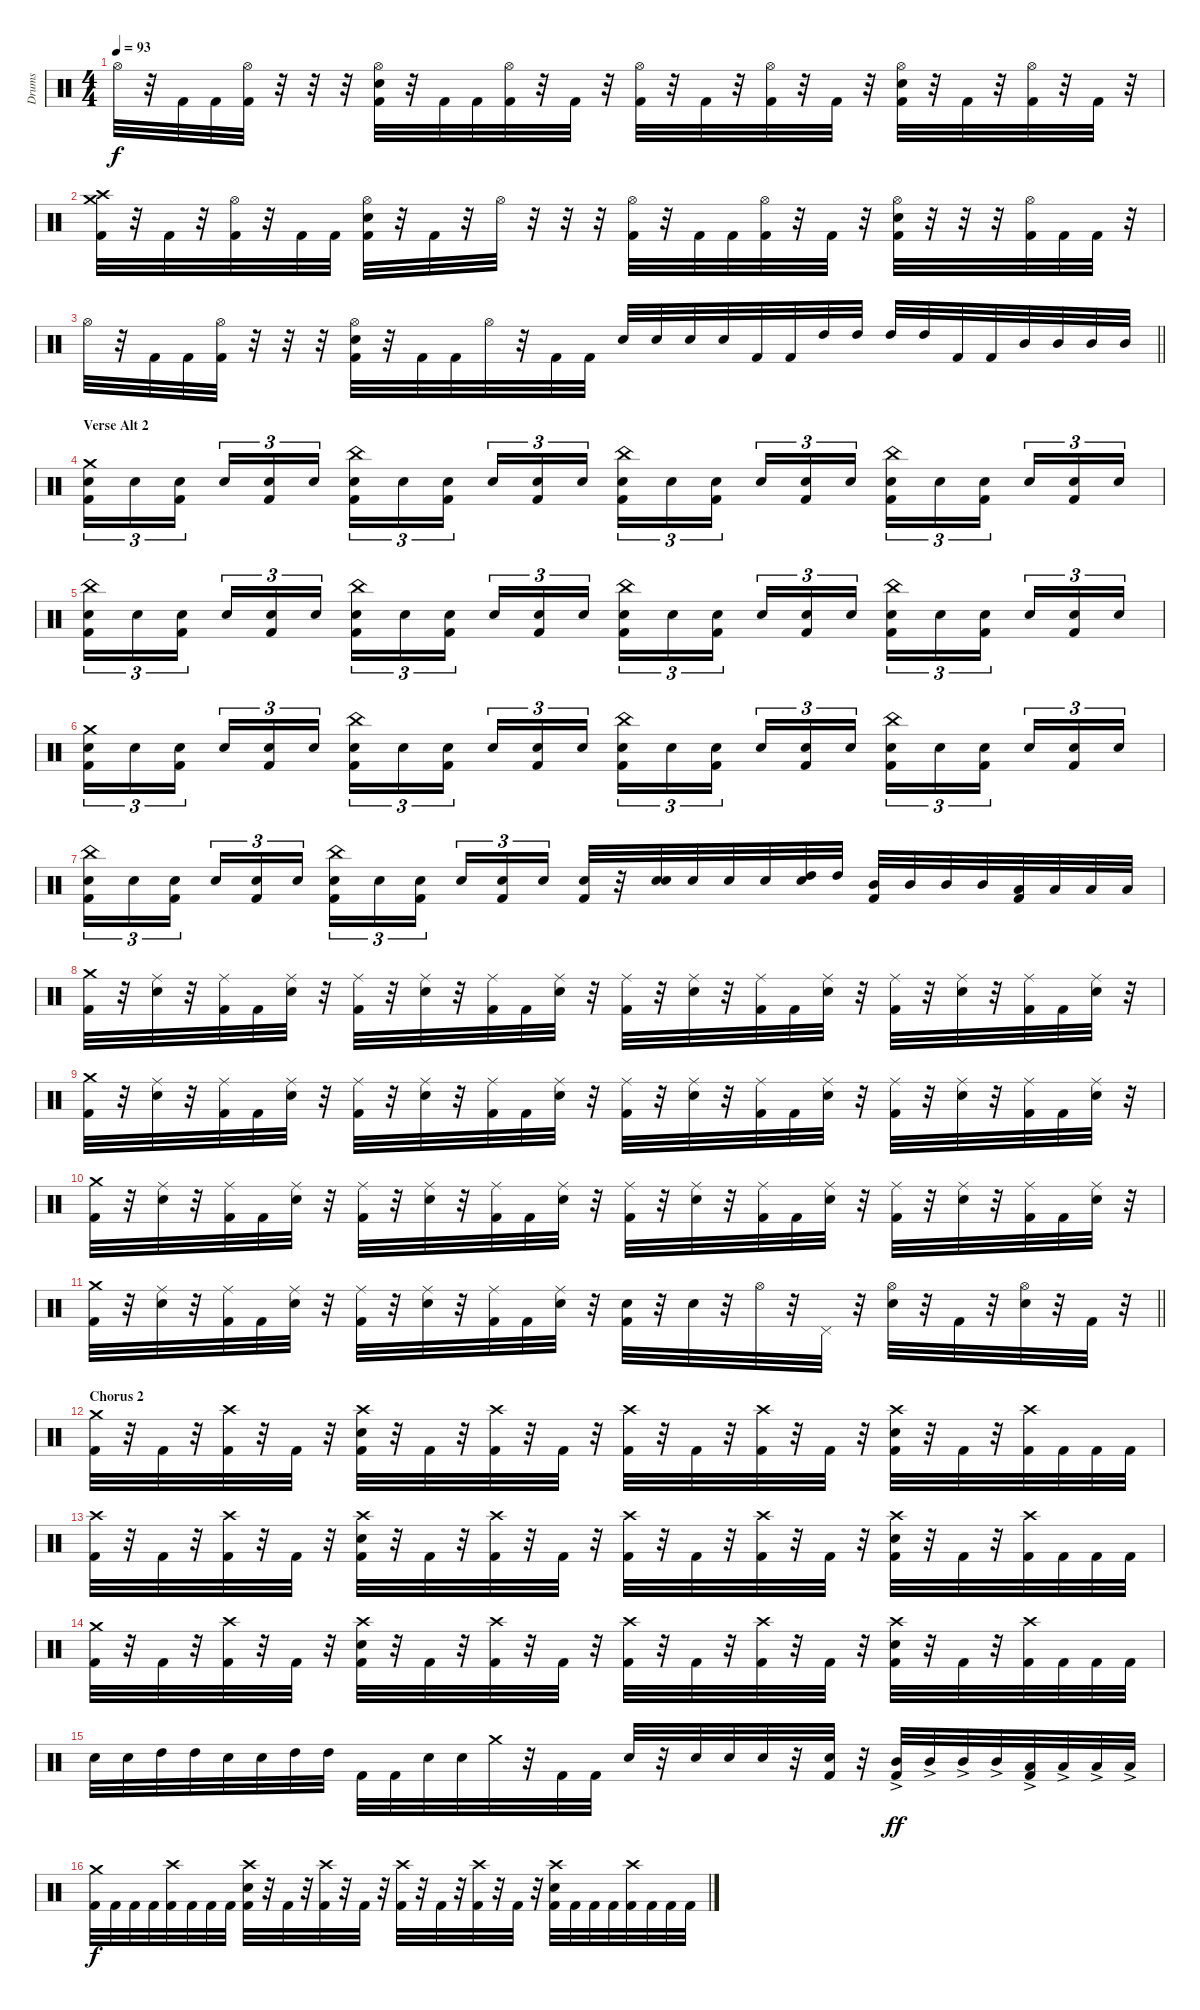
\track ("Drums" "Drums") {instrument percussion}
\staff {score}
\articulation defaults
\ts (4 4)
\tempo 93
\clef neutral
\ks c "Hi-Hat (open)".32{dy f}
r.32 "Kick (hit) 2".32 "Kick (hit) 2".32 ("Hi-Hat (open)" "Kick (hit) 2").32 r.32 r.32 r.32 ("Hi-Hat (open)" "Snare (hit) 2" "Kick (hit) 2").32 r.32 "Kick (hit) 2".32 "Kick (hit) 2".32 ("Hi-Hat (open)" "Kick (hit) 2").32 r.32 "Kick (hit) 2".32 r.32 ("Hi-Hat (open)" "Kick (hit) 2").32 r.32 "Kick (hit) 2".32 r.32 ("Hi-Hat (open)" "Kick (hit) 2").32 r.32 "Kick (hit) 2".32 r.32 ("Hi-Hat (open)" "Snare (hit) 2" "Kick (hit) 2").32 r.32 "Kick (hit) 2".32 r.32 ("Hi-Hat (open)" "Kick (hit) 2").32 r.32 "Kick (hit) 2".32 r.32 |
("Crash medium (hit)" "Crash high (hit)" "Kick (hit) 2").32 r.32 "Kick (hit) 2".32 r.32 ("Hi-Hat (open)" "Kick (hit) 2").32 r.32 "Kick (hit) 2".32 "Kick (hit) 2".32 ("Hi-Hat (open)" "Snare (hit) 2" "Kick (hit) 2").32 r.32 "Kick (hit) 2".32 r.32 "Hi-Hat (open)".32 r.32 r.32 r.32 ("Hi-Hat (open)" "Kick (hit) 2").32 r.32 "Kick (hit) 2".32 "Kick (hit) 2".32 ("Hi-Hat (open)" "Kick (hit) 2").32 r.32 "Kick (hit) 2".32 r.32 ("Hi-Hat (open)" "Snare (hit) 2" "Kick (hit) 2").32 r.32 r.32 r.32 ("Hi-Hat (open)" "Kick (hit) 2").32 "Kick (hit) 2".32 "Kick (hit) 2".32 r.32 |
\barLineRight lightlight "Hi-Hat (open)".32
r.32 "Kick (hit) 2".32 "Kick (hit) 2".32 ("Hi-Hat (open)" "Kick (hit) 2").32 r.32 r.32 r.32 ("Hi-Hat (open)" "Snare (hit) 2" "Kick (hit) 2").32 r.32 "Kick (hit) 2".32 "Kick (hit) 2".32 "Hi-Hat (open)".32 r.32 "Kick (hit) 2".32 "Kick (hit) 2".32 "Snare (hit) 2".32 "Snare (hit) 2".32 "Snare (hit) 2".32 "Snare (hit) 2".32 "Kick (hit) 2".32 "Kick (hit) 2".32 "High Tom (hit)".32 "High Tom (hit)".32 "High Tom (hit)".32 "High Tom (hit)".32 "Kick (hit) 2".32 "Kick (hit) 2".32 "Mid Tom (hit)".32 "Mid Tom (hit)".32 "Mid Tom (hit)".32 "Mid Tom (hit)".32 |
\section ("" "Verse Alt 2")
("Crash medium (hit)" "Snare (hit) 2" "Kick (hit) 2").16{tu (3 2)} "Snare (hit) 2".16{tu (3 2)} ("Snare (hit) 2" "Kick (hit) 2").16{tu (3 2) beam splitsecondary} "Snare (hit) 2".16{tu (3 2)} ("Snare (hit) 2" "Kick (hit) 2").16{tu (3 2)} "Snare (hit) 2".16{tu (3 2)} ("China (hit)" "Snare (hit) 2" "Kick (hit) 2").16{tu (3 2)} "Snare (hit) 2".16{tu (3 2)} ("Snare (hit) 2" "Kick (hit) 2").16{tu (3 2) beam splitsecondary} "Snare (hit) 2".16{tu (3 2)} ("Snare (hit) 2" "Kick (hit) 2").16{tu (3 2)} "Snare (hit) 2".16{tu (3 2)} ("China (hit)" "Snare (hit) 2" "Kick (hit) 2").16{tu (3 2)} "Snare (hit) 2".16{tu (3 2)} ("Snare (hit) 2" "Kick (hit) 2").16{tu (3 2) beam splitsecondary} "Snare (hit) 2".16{tu (3 2)} ("Snare (hit) 2" "Kick (hit) 2").16{tu (3 2)} "Snare (hit) 2".16{tu (3 2)} ("China (hit)" "Snare (hit) 2" "Kick (hit) 2").16{tu (3 2)} "Snare (hit) 2".16{tu (3 2)} ("Snare (hit) 2" "Kick (hit) 2").16{tu (3 2) beam splitsecondary} "Snare (hit) 2".16{tu (3 2)} ("Snare (hit) 2" "Kick (hit) 2").16{tu (3 2)} "Snare (hit) 2".16{tu (3 2)} |
("China (hit)" "Snare (hit) 2" "Kick (hit) 2").16{tu (3 2)} "Snare (hit) 2".16{tu (3 2)} ("Snare (hit) 2" "Kick (hit) 2").16{tu (3 2) beam splitsecondary} "Snare (hit) 2".16{tu (3 2)} ("Snare (hit) 2" "Kick (hit) 2").16{tu (3 2)} "Snare (hit) 2".16{tu (3 2)} ("China (hit)" "Snare (hit) 2" "Kick (hit) 2").16{tu (3 2)} "Snare (hit) 2".16{tu (3 2)} ("Snare (hit) 2" "Kick (hit) 2").16{tu (3 2) beam splitsecondary} "Snare (hit) 2".16{tu (3 2)} ("Snare (hit) 2" "Kick (hit) 2").16{tu (3 2)} "Snare (hit) 2".16{tu (3 2)} ("China (hit)" "Snare (hit) 2" "Kick (hit) 2").16{tu (3 2)} "Snare (hit) 2".16{tu (3 2)} ("Snare (hit) 2" "Kick (hit) 2").16{tu (3 2) beam splitsecondary} "Snare (hit) 2".16{tu (3 2)} ("Snare (hit) 2" "Kick (hit) 2").16{tu (3 2)} "Snare (hit) 2".16{tu (3 2)} ("China (hit)" "Snare (hit) 2" "Kick (hit) 2").16{tu (3 2)} "Snare (hit) 2".16{tu (3 2)} ("Snare (hit) 2" "Kick (hit) 2").16{tu (3 2) beam splitsecondary} "Snare (hit) 2".16{tu (3 2)} ("Snare (hit) 2" "Kick (hit) 2").16{tu (3 2)} "Snare (hit) 2".16{tu (3 2)} |
("Crash medium (hit)" "Snare (hit) 2" "Kick (hit) 2").16{tu (3 2)} "Snare (hit) 2".16{tu (3 2)} ("Snare (hit) 2" "Kick (hit) 2").16{tu (3 2) beam splitsecondary} "Snare (hit) 2".16{tu (3 2)} ("Snare (hit) 2" "Kick (hit) 2").16{tu (3 2)} "Snare (hit) 2".16{tu (3 2)} ("China (hit)" "Snare (hit) 2" "Kick (hit) 2").16{tu (3 2)} "Snare (hit) 2".16{tu (3 2)} ("Snare (hit) 2" "Kick (hit) 2").16{tu (3 2) beam splitsecondary} "Snare (hit) 2".16{tu (3 2)} ("Snare (hit) 2" "Kick (hit) 2").16{tu (3 2)} "Snare (hit) 2".16{tu (3 2)} ("China (hit)" "Snare (hit) 2" "Kick (hit) 2").16{tu (3 2)} "Snare (hit) 2".16{tu (3 2)} ("Snare (hit) 2" "Kick (hit) 2").16{tu (3 2) beam splitsecondary} "Snare (hit) 2".16{tu (3 2)} ("Snare (hit) 2" "Kick (hit) 2").16{tu (3 2)} "Snare (hit) 2".16{tu (3 2)} ("China (hit)" "Snare (hit) 2" "Kick (hit) 2").16{tu (3 2)} "Snare (hit) 2".16{tu (3 2)} ("Snare (hit) 2" "Kick (hit) 2").16{tu (3 2) beam splitsecondary} "Snare (hit) 2".16{tu (3 2)} ("Snare (hit) 2" "Kick (hit) 2").16{tu (3 2)} "Snare (hit) 2".16{tu (3 2)} |
("China (hit)" "Snare (hit) 2" "Kick (hit) 2").16{tu (3 2)} "Snare (hit) 2".16{tu (3 2)} ("Snare (hit) 2" "Kick (hit) 2").16{tu (3 2) beam splitsecondary} "Snare (hit) 2".16{tu (3 2)} ("Snare (hit) 2" "Kick (hit) 2").16{tu (3 2)} "Snare (hit) 2".16{tu (3 2)} ("China (hit)" "Snare (hit) 2" "Kick (hit) 2").16{tu (3 2)} "Snare (hit) 2".16{tu (3 2)} ("Snare (hit) 2" "Kick (hit) 2").16{tu (3 2) beam splitsecondary} "Snare (hit) 2".16{tu (3 2)} ("Snare (hit) 2" "Kick (hit) 2").16{tu (3 2)} "Snare (hit) 2".16{tu (3 2)} ("Snare (hit) 2" "Kick (hit) 2").32 r.32 ("Snare (hit) 2" "Snare (hit) 2").32 "Snare (hit) 2".32 "Snare (hit) 2".32 "Snare (hit) 2".32 ("High Tom (hit)" "Snare (hit) 2").32 "High Tom (hit)".32 ("Mid Tom (hit)" "Kick (hit) 2").32 "Mid Tom (hit)".32 "Mid Tom (hit)".32 "Mid Tom (hit)".32 ("Low Tom (hit)" "Kick (hit) 2").32 "Low Tom (hit)".32 "Low Tom (hit)".32 "Low Tom (hit)".32 |
("Crash medium (hit)" "Kick (hit) 2").32 r.32 ("Ride (middle)" "Snare (hit) 2").32 r.32 ("Ride (middle)" "Kick (hit) 2").32 "Kick (hit) 2".32 ("Ride (middle)" "Snare (hit) 2").32 r.32 ("Ride (middle)" "Kick (hit) 2").32 r.32 ("Ride (middle)" "Snare (hit) 2").32 r.32 ("Ride (middle)" "Kick (hit) 2").32 "Kick (hit) 2".32 ("Ride (middle)" "Snare (hit) 2").32 r.32 ("Ride (middle)" "Kick (hit) 2").32 r.32 ("Ride (middle)" "Snare (hit) 2").32 r.32 ("Ride (middle)" "Kick (hit) 2").32 "Kick (hit) 2".32 ("Ride (middle)" "Snare (hit) 2").32 r.32 ("Ride (middle)" "Kick (hit) 2").32 r.32 ("Ride (middle)" "Snare (hit) 2").32 r.32 ("Ride (middle)" "Kick (hit) 2").32 "Kick (hit) 2".32 ("Ride (middle)" "Snare (hit) 2").32 r.32 |
("Crash medium (hit)" "Kick (hit) 2").32 r.32 ("Ride (middle)" "Snare (hit) 2").32 r.32 ("Ride (middle)" "Kick (hit) 2").32 "Kick (hit) 2".32 ("Ride (middle)" "Snare (hit) 2").32 r.32 ("Ride (middle)" "Kick (hit) 2").32 r.32 ("Ride (middle)" "Snare (hit) 2").32 r.32 ("Ride (middle)" "Kick (hit) 2").32 "Kick (hit) 2".32 ("Ride (middle)" "Snare (hit) 2").32 r.32 ("Ride (middle)" "Kick (hit) 2").32 r.32 ("Ride (middle)" "Snare (hit) 2").32 r.32 ("Ride (middle)" "Kick (hit) 2").32 "Kick (hit) 2".32 ("Ride (middle)" "Snare (hit) 2").32 r.32 ("Ride (middle)" "Kick (hit) 2").32 r.32 ("Ride (middle)" "Snare (hit) 2").32 r.32 ("Ride (middle)" "Kick (hit) 2").32 "Kick (hit) 2".32 ("Ride (middle)" "Snare (hit) 2").32 r.32 |
("Crash medium (hit)" "Kick (hit) 2").32 r.32 ("Ride (middle)" "Snare (hit) 2").32 r.32 ("Ride (middle)" "Kick (hit) 2").32 "Kick (hit) 2".32 ("Ride (middle)" "Snare (hit) 2").32 r.32 ("Ride (middle)" "Kick (hit) 2").32 r.32 ("Ride (middle)" "Snare (hit) 2").32 r.32 ("Ride (middle)" "Kick (hit) 2").32 "Kick (hit) 2".32 ("Ride (middle)" "Snare (hit) 2").32 r.32 ("Ride (middle)" "Kick (hit) 2").32 r.32 ("Ride (middle)" "Snare (hit) 2").32 r.32 ("Ride (middle)" "Kick (hit) 2").32 "Kick (hit) 2".32 ("Ride (middle)" "Snare (hit) 2").32 r.32 ("Ride (middle)" "Kick (hit) 2").32 r.32 ("Ride (middle)" "Snare (hit) 2").32 r.32 ("Ride (middle)" "Kick (hit) 2").32 "Kick (hit) 2".32 ("Ride (middle)" "Snare (hit) 2").32 r.32 |
\barLineRight lightlight
("Crash medium (hit)" "Kick (hit) 2").32 r.32 ("Ride (middle)" "Snare (hit) 2").32 r.32 ("Ride (middle)" "Kick (hit) 2").32 "Kick (hit) 2".32 ("Ride (middle)" "Snare (hit) 2").32 r.32 ("Ride (middle)" "Kick (hit) 2").32 r.32 ("Ride (middle)" "Snare (hit) 2").32 r.32 ("Ride (middle)" "Kick (hit) 2").32 "Kick (hit) 2".32 ("Ride (middle)" "Snare (hit) 2").32 r.32 ("Snare (hit) 2" "Kick (hit) 2").32 r.32 "Snare (hit) 2".32 r.32 "Hi-Hat (open)".32 r.32 "Pedal Hi-Hat (hit)".32 r.32 ("Hi-Hat (open)" "Snare (hit) 2").32 r.32 "Kick (hit) 2".32 r.32 ("Hi-Hat (open)" "Snare (hit) 2").32 r.32 "Kick (hit) 2".32 r.32 |
\section ("" "Chorus 2")
("Crash medium (hit)" "Kick (hit) 2").32 r.32 "Kick (hit) 2".32 r.32 ("Crash high (hit)" "Kick (hit) 2").32 r.32 "Kick (hit) 2".32 r.32 ("Crash high (hit)" "Snare (hit) 2" "Kick (hit) 2").32 r.32 "Kick (hit) 2".32 r.32 ("Crash high (hit)" "Kick (hit) 2").32 r.32 "Kick (hit) 2".32 r.32 ("Crash high (hit)" "Kick (hit) 2").32 r.32 "Kick (hit) 2".32 r.32 ("Crash high (hit)" "Kick (hit) 2").32 r.32 "Kick (hit) 2".32 r.32 ("Crash high (hit)" "Snare (hit) 2" "Kick (hit) 2").32 r.32 "Kick (hit) 2".32 r.32 ("Crash high (hit)" "Kick (hit) 2").32 "Kick (hit) 2".32 "Kick (hit) 2".32 "Kick (hit) 2".32 |
("Crash high (hit)" "Kick (hit) 2").32 r.32 "Kick (hit) 2".32 r.32 ("Crash high (hit)" "Kick (hit) 2").32 r.32 "Kick (hit) 2".32 r.32 ("Crash high (hit)" "Snare (hit) 2" "Kick (hit) 2").32 r.32 "Kick (hit) 2".32 r.32 ("Crash high (hit)" "Kick (hit) 2").32 r.32 "Kick (hit) 2".32 r.32 ("Crash high (hit)" "Kick (hit) 2").32 r.32 "Kick (hit) 2".32 r.32 ("Crash high (hit)" "Kick (hit) 2").32 r.32 "Kick (hit) 2".32 r.32 ("Crash high (hit)" "Snare (hit) 2" "Kick (hit) 2").32 r.32 "Kick (hit) 2".32 r.32 ("Crash high (hit)" "Kick (hit) 2").32 "Kick (hit) 2".32 "Kick (hit) 2".32 "Kick (hit) 2".32 |
("Crash medium (hit)" "Kick (hit) 2").32 r.32 "Kick (hit) 2".32 r.32 ("Crash high (hit)" "Kick (hit) 2").32 r.32 "Kick (hit) 2".32 r.32 ("Crash high (hit)" "Snare (hit) 2" "Kick (hit) 2").32 r.32 "Kick (hit) 2".32 r.32 ("Crash high (hit)" "Kick (hit) 2").32 r.32 "Kick (hit) 2".32 r.32 ("Crash high (hit)" "Kick (hit) 2").32 r.32 "Kick (hit) 2".32 r.32 ("Crash high (hit)" "Kick (hit) 2").32 r.32 "Kick (hit) 2".32 r.32 ("Crash high (hit)" "Snare (hit) 2" "Kick (hit) 2").32 r.32 "Kick (hit) 2".32 r.32 ("Crash high (hit)" "Kick (hit) 2").32 "Kick (hit) 2".32 "Kick (hit) 2".32 "Kick (hit) 2".32 |
"Snare (hit) 2".32 "Snare (hit) 2".32 "High Tom (hit)".32 "High Tom (hit)".32 "Snare (hit) 2".32 "Snare (hit) 2".32 "High Tom (hit)".32 "High Tom (hit)".32 "Kick (hit) 2".32 "Kick (hit) 2".32 "Snare (hit) 2".32 "Snare (hit) 2".32 "Crash medium (hit)".32 r.32 "Kick (hit) 2".32 "Kick (hit) 2".32 "Snare (hit) 2".32 r.32 "Snare (hit) 2".32 "Snare (hit) 2".32 "Snare (hit) 2".32 r.32 ("Snare (hit) 2" "Kick (hit) 2").32 r.32 ("Mid Tom (hit)"{ac} "Kick (hit) 2").32{dy ff} "Mid Tom (hit)"{ac}.32 "Mid Tom (hit)"{ac}.32 "Mid Tom (hit)"{ac}.32 ("Low Tom (hit)"{ac} "Kick (hit) 2").32 "Low Tom (hit)"{ac}.32 "Low Tom (hit)"{ac}.32 "Low Tom (hit)"{ac}.32 |
("Crash medium (hit)" "Kick (hit) 2").32{dy f} "Kick (hit) 2".32 "Kick (hit) 2".32 "Kick (hit) 2".32 ("Crash high (hit)" "Kick (hit) 2").32 "Kick (hit) 2".32 "Kick (hit) 2".32 "Kick (hit) 2".32 ("Crash high (hit)" "Snare (hit) 2" "Kick (hit) 2").32 r.32 "Kick (hit) 2".32 r.32 ("Crash high (hit)" "Kick (hit) 2").32 r.32 "Kick (hit) 2".32 r.32 ("Crash high (hit)" "Kick (hit) 2").32 r.32 "Kick (hit) 2".32 r.32 ("Crash high (hit)" "Kick (hit) 2").32 r.32 "Kick (hit) 2".32 r.32 ("Crash high (hit)" "Snare (hit) 2" "Kick (hit) 2").32 "Kick (hit) 2".32 "Kick (hit) 2".32 "Kick (hit) 2".32 ("Crash high (hit)" "Kick (hit) 2").32 "Kick (hit) 2".32 "Kick (hit) 2".32 "Kick (hit) 2".32
